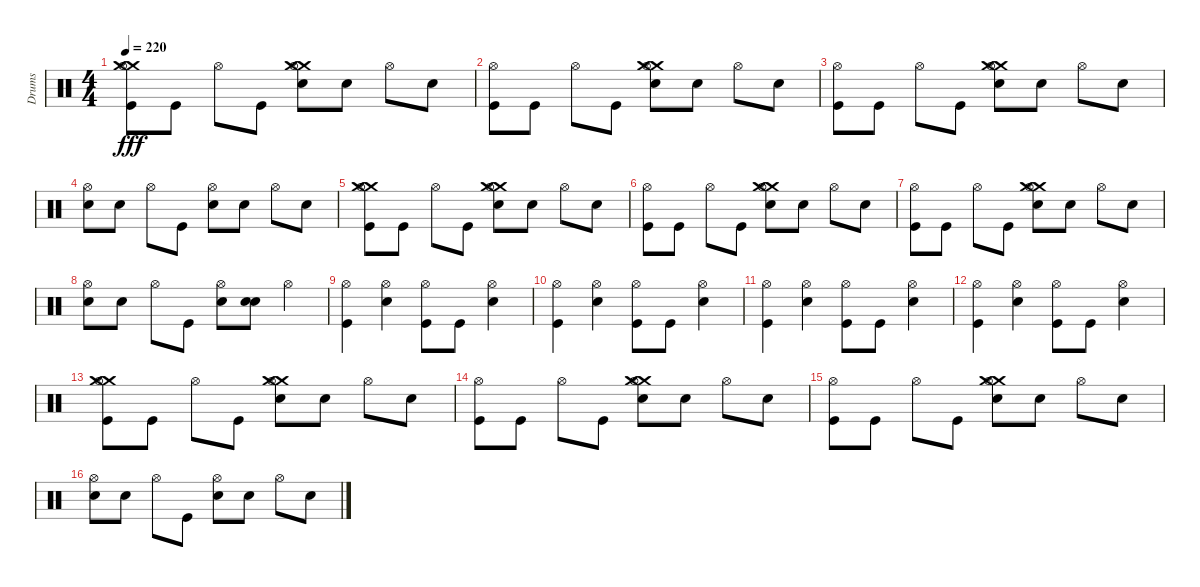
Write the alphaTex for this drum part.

\track ("Drums" "Drums") {instrument percussion}
\staff {score}
\articulation defaults
\ts (4 4)
\tempo 220
\clef neutral
\ks c
("Crash medium (hit)" "Crash medium (hit)" "Kick (hit)" "Hi-Hat (open)").8{dy fff} "Kick (hit)".8 "Hi-Hat (open)".8 "Kick (hit)".8 ("Crash medium (hit)" "Crash medium (hit)" "Snare (hit) 2" "Hi-Hat (open)").8 "Snare (hit) 2".8 "Hi-Hat (open)".8 "Snare (hit) 2".8 |
("Kick (hit)" "Hi-Hat (open)").8 "Kick (hit)".8 "Hi-Hat (open)".8 "Kick (hit)".8 ("Crash medium (hit)" "Crash medium (hit)" "Snare (hit) 2" "Hi-Hat (open)").8 "Snare (hit) 2".8 "Hi-Hat (open)".8 "Snare (hit) 2".8 |
("Kick (hit)" "Hi-Hat (open)").8 "Kick (hit)".8 "Hi-Hat (open)".8 "Kick (hit)".8 ("Crash medium (hit)" "Crash medium (hit)" "Snare (hit) 2" "Hi-Hat (open)").8 "Snare (hit) 2".8 "Hi-Hat (open)".8 "Snare (hit) 2".8 |
("Snare (hit) 2" "Hi-Hat (open)").8 "Snare (hit) 2".8 "Hi-Hat (open)".8 "Kick (hit)".8 ("Snare (hit) 2" "Hi-Hat (open)").8 "Snare (hit) 2".8 "Hi-Hat (open)".8 "Snare (hit) 2".8 |
("Crash medium (hit)" "Crash medium (hit)" "Kick (hit)" "Hi-Hat (open)").8 "Kick (hit)".8 "Hi-Hat (open)".8 "Kick (hit)".8 ("Crash medium (hit)" "Crash medium (hit)" "Snare (hit) 2" "Hi-Hat (open)").8 "Snare (hit) 2".8 "Hi-Hat (open)".8 "Snare (hit) 2".8 |
("Kick (hit)" "Hi-Hat (open)").8 "Kick (hit)".8 "Hi-Hat (open)".8 "Kick (hit)".8 ("Crash medium (hit)" "Crash medium (hit)" "Snare (hit) 2" "Hi-Hat (open)").8 "Snare (hit) 2".8 "Hi-Hat (open)".8 "Snare (hit) 2".8 |
("Kick (hit)" "Hi-Hat (open)").8 "Kick (hit)".8 "Hi-Hat (open)".8 "Kick (hit)".8 ("Crash medium (hit)" "Crash medium (hit)" "Snare (hit) 2" "Hi-Hat (open)").8 "Snare (hit) 2".8 "Hi-Hat (open)".8 "Snare (hit) 2".8 |
("Snare (hit) 2" "Hi-Hat (open)").8 "Snare (hit) 2".8 "Hi-Hat (open)".8 "Kick (hit)".8 ("Snare (hit) 2" "Hi-Hat (open)").8 ("Snare (hit) 2" "Snare (hit) 2").8 "Hi-Hat (open)".4 |
("Kick (hit)" "Hi-Hat (open)").4 ("Hi-Hat (open)" "Snare (hit) 2").4 ("Hi-Hat (open)" "Kick (hit)").8 "Kick (hit)".8 ("Hi-Hat (open)" "Snare (hit) 2").4 |
("Hi-Hat (open)" "Kick (hit)").4 ("Snare (hit) 2" "Hi-Hat (open)").4 ("Kick (hit)" "Hi-Hat (open)").8 "Kick (hit)".8 ("Snare (hit) 2" "Hi-Hat (open)").4 |
("Hi-Hat (open)" "Kick (hit)").4 ("Hi-Hat (open)" "Snare (hit) 2").4 ("Kick (hit)" "Hi-Hat (open)").8 "Kick (hit)".8 ("Hi-Hat (open)" "Snare (hit) 2").4 |
("Kick (hit)" "Hi-Hat (open)").4 ("Snare (hit) 2" "Hi-Hat (open)").4 ("Kick (hit)" "Hi-Hat (open)").8 "Kick (hit)".8 ("Snare (hit) 2" "Hi-Hat (open)").4 |
("Crash medium (hit)" "Crash medium (hit)" "Kick (hit)" "Hi-Hat (open)").8 "Kick (hit)".8 "Hi-Hat (open)".8 "Kick (hit)".8 ("Crash medium (hit)" "Crash medium (hit)" "Snare (hit) 2" "Hi-Hat (open)").8 "Snare (hit) 2".8 "Hi-Hat (open)".8 "Snare (hit) 2".8 |
("Kick (hit)" "Hi-Hat (open)").8 "Kick (hit)".8 "Hi-Hat (open)".8 "Kick (hit)".8 ("Crash medium (hit)" "Crash medium (hit)" "Snare (hit) 2" "Hi-Hat (open)").8 "Snare (hit) 2".8 "Hi-Hat (open)".8 "Snare (hit) 2".8 |
("Kick (hit)" "Hi-Hat (open)").8 "Kick (hit)".8 "Hi-Hat (open)".8 "Kick (hit)".8 ("Crash medium (hit)" "Crash medium (hit)" "Snare (hit) 2" "Hi-Hat (open)").8 "Snare (hit) 2".8 "Hi-Hat (open)".8 "Snare (hit) 2".8 |
("Snare (hit) 2" "Hi-Hat (open)").8 "Snare (hit) 2".8 "Hi-Hat (open)".8 "Kick (hit)".8 ("Snare (hit) 2" "Hi-Hat (open)").8 "Snare (hit) 2".8 "Hi-Hat (open)".8 "Snare (hit) 2".8
